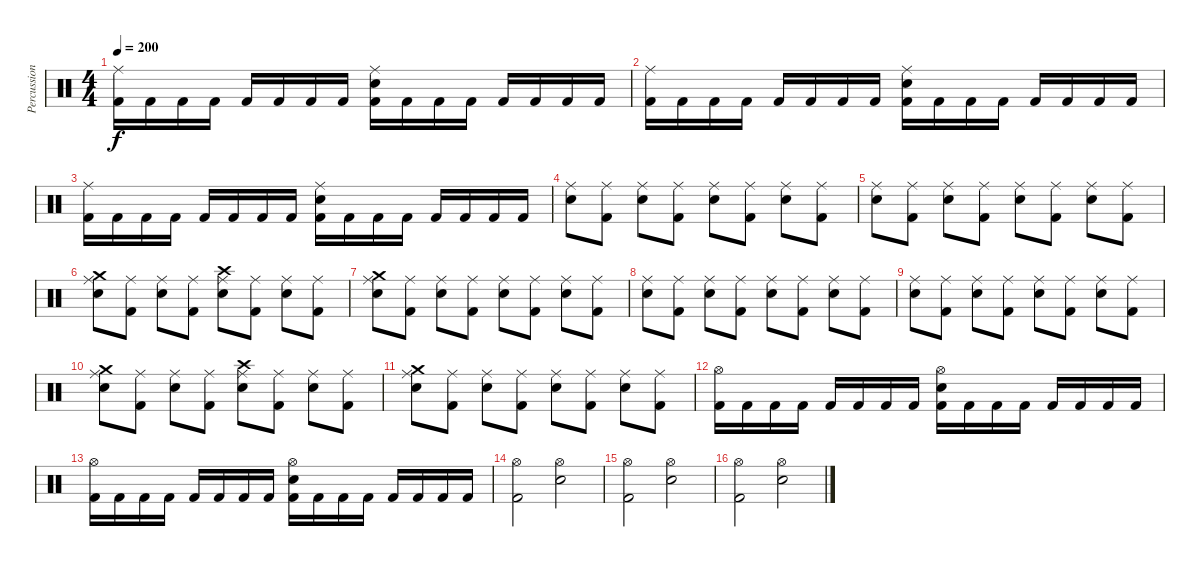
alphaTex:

\track ("Percussion" "Percussion") {instrument percussion}
\staff {score}
\articulation defaults
\ts (4 4)
\tempo 200
\clef neutral
\ks c
("Ride (middle)" "Kick (hit) 2").16{dy f} "Kick (hit) 2".16 "Kick (hit) 2".16 "Kick (hit) 2".16 "Kick (hit) 2".16 "Kick (hit) 2".16 "Kick (hit) 2".16 "Kick (hit) 2".16 ("Ride (middle)" "Snare (hit) 2" "Kick (hit) 2").16 "Kick (hit) 2".16 "Kick (hit) 2".16 "Kick (hit) 2".16 "Kick (hit) 2".16 "Kick (hit) 2".16 "Kick (hit) 2".16 "Kick (hit) 2".16 |
("Ride (middle)" "Kick (hit) 2").16 "Kick (hit) 2".16 "Kick (hit) 2".16 "Kick (hit) 2".16 "Kick (hit) 2".16 "Kick (hit) 2".16 "Kick (hit) 2".16 "Kick (hit) 2".16 ("Ride (middle)" "Snare (hit) 2" "Kick (hit) 2").16 "Kick (hit) 2".16 "Kick (hit) 2".16 "Kick (hit) 2".16 "Kick (hit) 2".16 "Kick (hit) 2".16 "Kick (hit) 2".16 "Kick (hit) 2".16 |
("Ride (middle)" "Kick (hit) 2").16 "Kick (hit) 2".16 "Kick (hit) 2".16 "Kick (hit) 2".16 "Kick (hit) 2".16 "Kick (hit) 2".16 "Kick (hit) 2".16 "Kick (hit) 2".16 ("Ride (middle)" "Snare (hit) 2" "Kick (hit) 2").16 "Kick (hit) 2".16 "Kick (hit) 2".16 "Kick (hit) 2".16 "Kick (hit) 2".16 "Kick (hit) 2".16 "Kick (hit) 2".16 "Kick (hit) 2".16 |
("Ride (middle)" "Snare (hit) 2").8 ("Kick (hit) 2" "Ride (middle)").8 ("Ride (middle)" "Snare (hit) 2").8 ("Kick (hit) 2" "Ride (middle)").8 ("Ride (middle)" "Snare (hit) 2").8 ("Kick (hit) 2" "Ride (middle)").8 ("Ride (middle)" "Snare (hit) 2").8 ("Kick (hit) 2" "Ride (middle)").8 |
("Ride (middle)" "Snare (hit) 2").8 ("Kick (hit) 2" "Ride (middle)").8 ("Ride (middle)" "Snare (hit) 2").8 ("Kick (hit) 2" "Ride (middle)").8 ("Ride (middle)" "Snare (hit) 2").8 ("Kick (hit) 2" "Ride (middle)").8 ("Ride (middle)" "Snare (hit) 2").8 ("Kick (hit) 2" "Ride (middle)").8 |
("Ride (middle)" "Snare (hit) 2" "Crash medium (hit)").8 ("Kick (hit) 2" "Ride (middle)").8 ("Ride (middle)" "Snare (hit) 2").8 ("Kick (hit) 2" "Ride (middle)").8 ("Ride (middle)" "Snare (hit) 2" "Crash high (hit)").8 ("Kick (hit) 2" "Ride (middle)").8 ("Ride (middle)" "Snare (hit) 2").8 ("Kick (hit) 2" "Ride (middle)").8 |
("Ride (middle)" "Snare (hit) 2" "Crash medium (hit)").8 ("Kick (hit) 2" "Ride (middle)").8 ("Ride (middle)" "Snare (hit) 2").8 ("Kick (hit) 2" "Ride (middle)").8 ("Ride (middle)" "Snare (hit) 2").8 ("Kick (hit) 2" "Ride (middle)").8 ("Ride (middle)" "Snare (hit) 2").8 ("Kick (hit) 2" "Ride (middle)").8 |
("Ride (middle)" "Snare (hit) 2").8 ("Kick (hit) 2" "Ride (middle)").8 ("Ride (middle)" "Snare (hit) 2").8 ("Kick (hit) 2" "Ride (middle)").8 ("Ride (middle)" "Snare (hit) 2").8 ("Kick (hit) 2" "Ride (middle)").8 ("Ride (middle)" "Snare (hit) 2").8 ("Kick (hit) 2" "Ride (middle)").8 |
("Ride (middle)" "Snare (hit) 2").8 ("Kick (hit) 2" "Ride (middle)").8 ("Ride (middle)" "Snare (hit) 2").8 ("Kick (hit) 2" "Ride (middle)").8 ("Ride (middle)" "Snare (hit) 2").8 ("Kick (hit) 2" "Ride (middle)").8 ("Ride (middle)" "Snare (hit) 2").8 ("Kick (hit) 2" "Ride (middle)").8 |
("Ride (middle)" "Snare (hit) 2" "Crash medium (hit)").8 ("Kick (hit) 2" "Ride (middle)").8 ("Ride (middle)" "Snare (hit) 2").8 ("Kick (hit) 2" "Ride (middle)").8 ("Ride (middle)" "Snare (hit) 2" "Crash high (hit)").8 ("Kick (hit) 2" "Ride (middle)").8 ("Ride (middle)" "Snare (hit) 2").8 ("Kick (hit) 2" "Ride (middle)").8 |
("Ride (middle)" "Snare (hit) 2" "Crash medium (hit)").8 ("Kick (hit) 2" "Ride (middle)").8 ("Ride (middle)" "Snare (hit) 2").8 ("Kick (hit) 2" "Ride (middle)").8 ("Ride (middle)" "Snare (hit) 2").8 ("Kick (hit) 2" "Ride (middle)").8 ("Ride (middle)" "Snare (hit) 2").8 ("Kick (hit) 2" "Ride (middle)").8 |
("Kick (hit) 2" "Hi-Hat (open)").16 "Kick (hit) 2".16 "Kick (hit) 2".16 "Kick (hit) 2".16 "Kick (hit) 2".16 "Kick (hit) 2".16 "Kick (hit) 2".16 "Kick (hit) 2".16 ("Kick (hit) 2" "Hi-Hat (open)" "Snare (hit) 2").16 "Kick (hit) 2".16 "Kick (hit) 2".16 "Kick (hit) 2".16 "Kick (hit) 2".16 "Kick (hit) 2".16 "Kick (hit) 2".16 "Kick (hit) 2".16 |
("Kick (hit) 2" "Hi-Hat (open)").16 "Kick (hit) 2".16 "Kick (hit) 2".16 "Kick (hit) 2".16 "Kick (hit) 2".16 "Kick (hit) 2".16 "Kick (hit) 2".16 "Kick (hit) 2".16 ("Kick (hit) 2" "Hi-Hat (open)" "Snare (hit) 2").16 "Kick (hit) 2".16 "Kick (hit) 2".16 "Kick (hit) 2".16 "Kick (hit) 2".16 "Kick (hit) 2".16 "Kick (hit) 2".16 "Kick (hit) 2".16 |
("Hi-Hat (open)" "Kick (hit) 2").2 ("Snare (hit) 2" "Hi-Hat (open)").2 |
("Hi-Hat (open)" "Kick (hit) 2").2 ("Snare (hit) 2" "Hi-Hat (open)").2 |
("Hi-Hat (open)" "Kick (hit) 2").2 ("Snare (hit) 2" "Hi-Hat (open)").2
